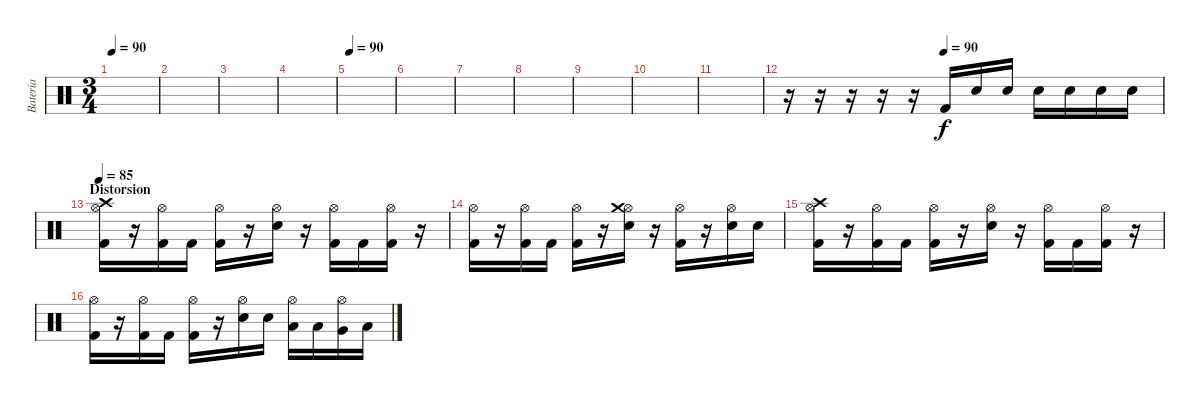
\track ("Bateria" "Bateria") {instrument percussion}
\staff {score}
\articulation defaults
\ts (3 4)
\tempo 90
\clef neutral
\ks c
|
|
|
|
\tempo 90
|
|
|
|
|
|
|
\tempo (90 0.4166666666666667)
r.16 r.16 r.16 r.16 r.16 "Kick (hit) 2".16 "Electric Snare (hit)".16 "Electric Snare (hit)".16 "Electric Snare (hit)".16 "Electric Snare (hit)".16 "Electric Snare (hit)".16 "Electric Snare (hit)".16 |
\section ("" "Distorsion")
\tempo 85
("Kick (hit) 2" "Hi-Hat (open)" "Crash high (hit)").16 r.16 ("Kick (hit) 2" "Hi-Hat (open)").16 "Kick (hit) 2".16 ("Kick (hit) 2" "Hi-Hat (open)").16 r.16 ("Electric Snare (hit)" "Hi-Hat (open)").16 r.16 ("Kick (hit) 2" "Hi-Hat (open)").16 "Kick (hit) 2".16 ("Kick (hit) 2" "Hi-Hat (open)").16 r.16 |
("Kick (hit) 2" "Hi-Hat (open)").16 r.16 ("Kick (hit) 2" "Hi-Hat (open)").16 "Kick (hit) 2".16 ("Kick (hit) 2" "Hi-Hat (open)").16 r.16 ("Electric Snare (hit)" "Hi-Hat (open)" "Crash medium (hit)").16 r.16 ("Kick (hit) 2" "Hi-Hat (open)").16 r.16 ("Electric Snare (hit)" "Hi-Hat (open)").16 "Electric Snare (hit)".16 |
("Kick (hit) 2" "Hi-Hat (open)" "Crash high (hit)").16 r.16 ("Kick (hit) 2" "Hi-Hat (open)").16 "Kick (hit) 2".16 ("Kick (hit) 2" "Hi-Hat (open)").16 r.16 ("Electric Snare (hit)" "Hi-Hat (open)").16 r.16 ("Kick (hit) 2" "Hi-Hat (open)").16 "Kick (hit) 2".16 ("Kick (hit) 2" "Hi-Hat (open)").16 r.16 |
("Kick (hit) 2" "Hi-Hat (open)").16 r.16 ("Kick (hit) 2" "Hi-Hat (open)").16 "Kick (hit) 2".16 ("Kick (hit) 2" "Hi-Hat (open)").16 r.16 ("Electric Snare (hit)" "Hi-Hat (open)").16 "Electric Snare (hit)".16 ("Low Tom (hit)" "Hi-Hat (open)").16 "Low Tom (hit)".16 ("Very Low Tom (hit)" "Hi-Hat (open)").16 "Low Floor Tom (hit)".16
